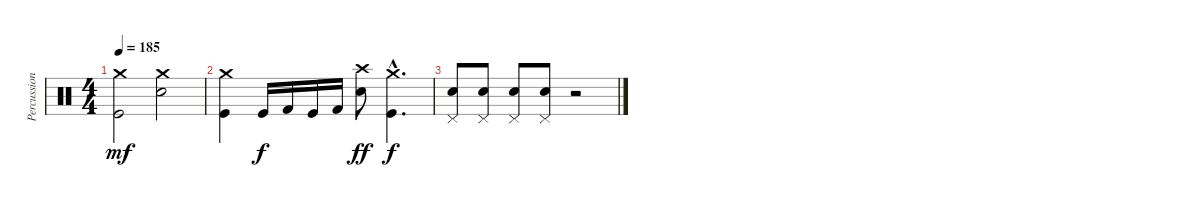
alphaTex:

\track ("Percussions" "Percussion") {instrument percussion}
\staff {score}
\articulation defaults
\ts (4 4)
\tempo 185
\clef neutral
\ks c
("Kick (hit)" "Crash medium (hit)").2{dy mf} ("Electric Snare (hit)" "Crash medium (hit)").2 |
("Kick (hit)" "Crash medium (hit)").4 "Kick (hit)".16{dy f} "Kick (hit) 2".16 "Kick (hit)".16 "Kick (hit) 2".16 ("Electric Snare (hit)" "Crash high (hit)").8{dy ff} ("Kick (hit)"{hac} "Crash medium (hit)"{hac}).4{d dy f} |
("Electric Snare (hit)" "Pedal Hi-Hat (hit)").8 ("Electric Snare (hit)" "Pedal Hi-Hat (hit)").8 ("Electric Snare (hit)" "Pedal Hi-Hat (hit)").8 ("Electric Snare (hit)" "Pedal Hi-Hat (hit)").8 r.2
